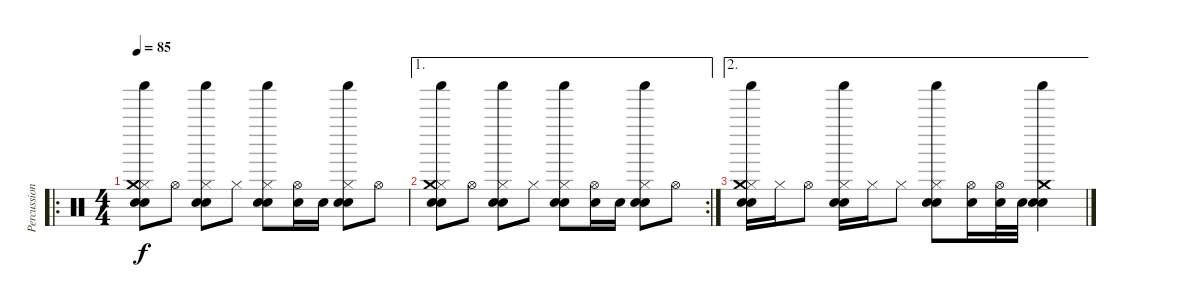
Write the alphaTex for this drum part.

\track ("Percussions" "Percussion") {instrument percussion}
\staff {score}
\articulation defaults
\ro
\ts (4 4)
\tempo 85
\clef neutral
\ks c
("Hi-Hat (closed)" "Crash medium (hit)" "Electric Snare (hit)" "Snare (hit) 2" "Shaker (hit)").8{dy f} "Hi-Hat (open)".8 ("Hi-Hat (closed)" "Electric Snare (hit)" "Snare (hit) 2" "Shaker (hit)").8 "Hi-Hat (closed)".8 ("Hi-Hat (closed)" "Electric Snare (hit)" "Snare (hit) 2" "Shaker (hit)").8 ("Hi-Hat (open)" "Electric Snare (hit)").16 "Electric Snare (hit)".16 ("Hi-Hat (closed)" "Electric Snare (hit)" "Snare (hit) 2" "Shaker (hit)").8 "Hi-Hat (open)".8 |
\ae 1
\rc 2
("Hi-Hat (closed)" "Crash medium (hit)" "Electric Snare (hit)" "Snare (hit) 2" "Shaker (hit)").8 "Hi-Hat (open)".8 ("Hi-Hat (closed)" "Electric Snare (hit)" "Snare (hit) 2" "Shaker (hit)").8 "Hi-Hat (closed)".8 ("Hi-Hat (closed)" "Electric Snare (hit)" "Snare (hit) 2" "Shaker (hit)").8 ("Hi-Hat (open)" "Electric Snare (hit)").16 "Electric Snare (hit)".16 ("Hi-Hat (closed)" "Electric Snare (hit)" "Snare (hit) 2" "Shaker (hit)").8 "Hi-Hat (open)".8 |
\ae 2
("Hi-Hat (closed)" "Crash medium (hit)" "Electric Snare (hit)" "Snare (hit) 2" "Shaker (hit)").16 "Hi-Hat (closed)".16 "Hi-Hat (open)".8 ("Hi-Hat (closed)" "Electric Snare (hit)" "Snare (hit) 2" "Shaker (hit)").16 "Hi-Hat (closed)".16 "Hi-Hat (closed)".8 ("Hi-Hat (closed)" "Electric Snare (hit)" "Snare (hit) 2" "Shaker (hit)").8 ("Hi-Hat (open)" "Electric Snare (hit)").16 ("Hi-Hat (open)" "Electric Snare (hit)").32 "Electric Snare (hit)".32 ("Crash medium (hit)" "Electric Snare (hit)" "Snare (hit) 2" "Shaker (hit)").4
